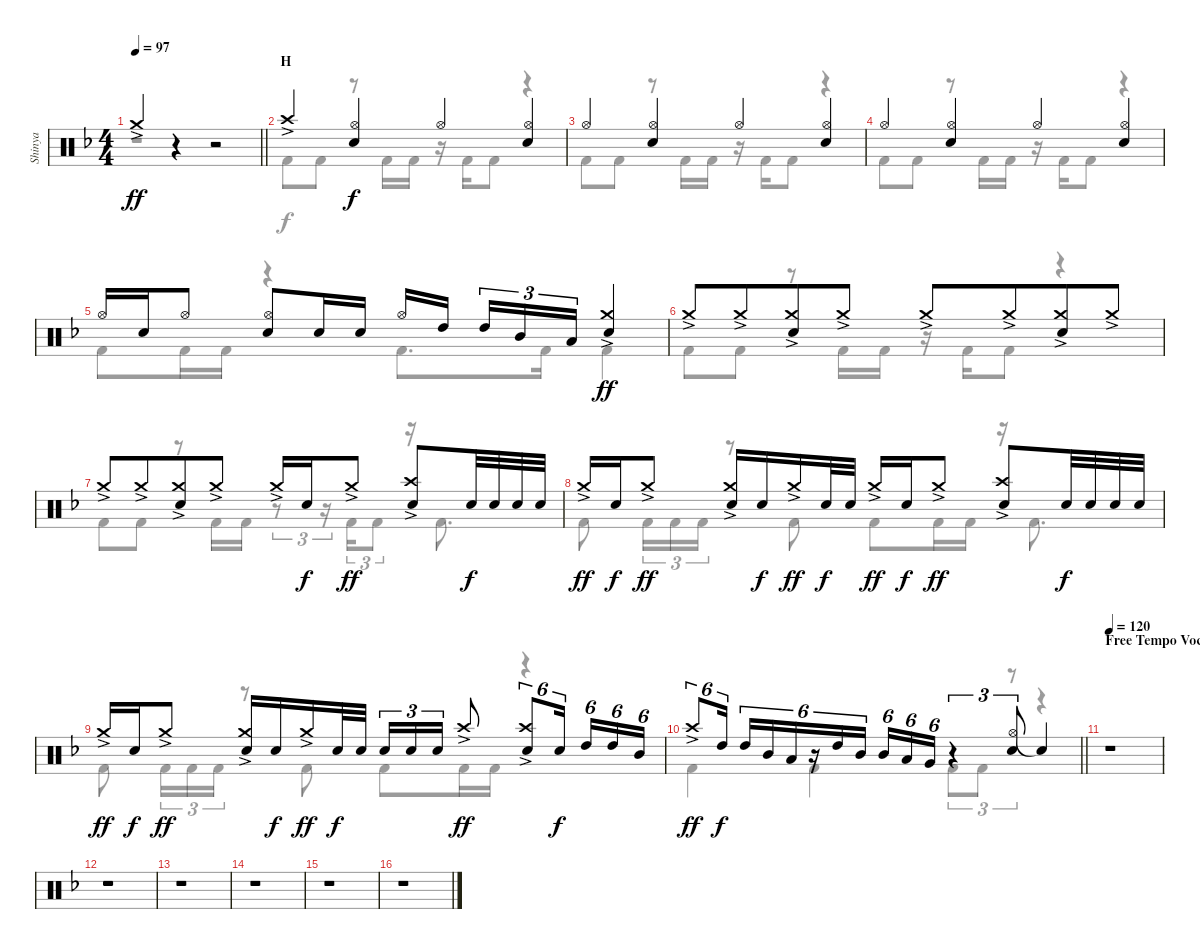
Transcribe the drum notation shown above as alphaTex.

\track ("Shinya" "Shinya") {mute instrument percussion}
\staff {score}
\articulation defaults
\voice
\ts (4 4)
\tempo 97
\clef neutral
\barLineRight lightlight
\ks dminor "Crash medium (hit)"{ac}.4{dy ff}
r.4 r.2 |
\section ("" "H")
"Crash high (hit)"{ac}.4 ("Hi-Hat (open)" "Snare (hit) 2").4{dy f} "Hi-Hat (open)".4 ("Hi-Hat (open)" "Snare (hit) 2").4 |
"Hi-Hat (open)".4 ("Hi-Hat (open)" "Snare (hit) 2").4 "Hi-Hat (open)".4 ("Hi-Hat (open)" "Snare (hit) 2").4 |
"Hi-Hat (open)".4 ("Hi-Hat (open)" "Snare (hit) 2").4 "Hi-Hat (open)".4 ("Hi-Hat (open)" "Snare (hit) 2").4 |
"Hi-Hat (open)".16 "Snare (hit) 2".16 "Hi-Hat (open)".8 ("Hi-Hat (open)" "Snare (hit) 2").8 "Snare (hit) 2".16 "Snare (hit) 2".16 "Hi-Hat (open)".16 "High Tom (hit)".16{beam splitsecondary} "High Tom (hit)".16{tu (3 2)} "Mid Tom (hit)".16{tu (3 2)} "Low Tom (hit)".16{tu (3 2)} ("Crash medium (hit)"{ac} "Snare (hit) 2").4{dy ff} |
"Crash medium (hit)"{ac}.8 "Crash medium (hit)"{ac}.8{beam merge} ("Crash medium (hit)"{ac} "Snare (hit) 2").8 "Crash medium (hit)"{ac}.8 "Crash medium (hit)"{ac}.8 "Crash medium (hit)"{ac}.8{beam merge} ("Crash medium (hit)"{ac} "Snare (hit) 2").8 "Crash medium (hit)"{ac}.8 |
"Crash medium (hit)"{ac}.8 "Crash medium (hit)"{ac}.8{beam merge} ("Crash medium (hit)"{ac} "Snare (hit) 2").8 "Crash medium (hit)"{ac}.8 "Crash medium (hit)"{ac}.16 "Snare (hit) 2".16{dy f} "Crash medium (hit)"{ac}.8{dy ff} ("Crash high (hit)"{ac} "Snare (hit) 2").8 "Snare (hit) 2".32{dy f} "Snare (hit) 2".32 "Snare (hit) 2".32 "Snare (hit) 2".32 |
"Crash medium (hit)"{ac}.16{dy ff} "Snare (hit) 2".16{dy f} "Crash medium (hit)"{ac}.8{dy ff} ("Crash medium (hit)"{ac} "Snare (hit) 2").16 "Snare (hit) 2".16{dy f} "Crash medium (hit)"{ac}.16{dy ff} "Snare (hit) 2".32{dy f} "Snare (hit) 2".32 "Crash medium (hit)"{ac}.16{dy ff} "Snare (hit) 2".16{dy f} "Crash medium (hit)"{ac}.8{dy ff} ("Crash high (hit)"{ac} "Snare (hit) 2").8 "Snare (hit) 2".32{dy f} "Snare (hit) 2".32 "Snare (hit) 2".32 "Snare (hit) 2".32 |
"Crash medium (hit)"{ac}.16{dy ff} "Snare (hit) 2".16{dy f} "Crash medium (hit)"{ac}.8{dy ff} ("Crash medium (hit)"{ac} "Snare (hit) 2").16 "Snare (hit) 2".16{dy f} "Crash medium (hit)"{ac}.16{dy ff} "Snare (hit) 2".32{dy f} "Snare (hit) 2".32 "Snare (hit) 2".16{tu (3 2)} "Snare (hit) 2".16{tu (3 2)} "Snare (hit) 2".16{tu (3 2)} "Crash high (hit)"{ac}.8{dy ff} ("Crash high (hit)"{ac} "Snare (hit) 2").8{tu (6 4)} "Snare (hit) 2".16{tu (6 4) dy f beam splitsecondary} "High Tom (hit)".16{tu (6 4)} "High Tom (hit)".16{tu (6 4)} "Mid Tom (hit)".16{tu (6 4)} |
\barLineRight lightlight "Crash high (hit)"{ac}.8{tu (6 4) dy ff} "High Tom (hit)".16{tu (6 4) dy f beam splitsecondary} "High Tom (hit)".16{tu (6 4)} "Mid Tom (hit)".16{tu (6 4)} "Low Tom (hit)".16{tu (6 4)}
r.16{tu (6 4)} "High Tom (hit)".16{tu (6 4)} "Mid Tom (hit)".16{tu (6 4) beam splitsecondary} "Mid Tom (hit)".16{tu (6 4)} "Low Tom (hit)".16{tu (6 4)} "Very Low Tom (hit)".16{tu (6 4)} r.4{tu (3 2)} ("Hi-Hat (open)" "Snare (hit) 2").8{tu (3 2)} "Snare (hit)"{t}.4 |
\section ("" "Free Tempo Vocals")
\tempo 120
r.1 |
r.1 |
r.1 |
r.1 |
r.1 |
r.1
\voice
\clef neutral
\ottava regular
\simile none
\barLineRight lightlight
\ks dminor
r.1{dy f} |
"Kick (hit) 2".8 "Kick (hit) 2".8 r.8 "Kick (hit) 2".16 "Kick (hit) 2".16 r.16 "Kick (hit) 2".16 "Kick (hit) 2".8 r.4 |
"Kick (hit) 2".8 "Kick (hit) 2".8 r.8 "Kick (hit) 2".16 "Kick (hit) 2".16 r.16 "Kick (hit) 2".16 "Kick (hit) 2".8 r.4 |
"Kick (hit) 2".8 "Kick (hit) 2".8 r.8 "Kick (hit) 2".16 "Kick (hit) 2".16 r.16 "Kick (hit) 2".16 "Kick (hit) 2".8 r.4 |
"Kick (hit) 2".8 "Kick (hit) 2".16 "Kick (hit) 2".16 r.4 "Kick (hit) 2".8{d} "Kick (hit) 2".16 "Kick (hit) 2".4 |
"Kick (hit) 2".8 "Kick (hit) 2".8 r.8 "Kick (hit) 2".16 "Kick (hit) 2".16 r.16 "Kick (hit) 2".16 "Kick (hit) 2".8 r.4 |
"Kick (hit) 2".8 "Kick (hit) 2".8 r.8 "Kick (hit) 2".16 "Kick (hit) 2".16 r.8{tu (3 2)} r.16{tu (3 2)} "Kick (hit) 2".16{tu (3 2)} "Kick (hit) 2".8{tu (3 2)} r.16 "Kick (hit) 2".8{d} |
"Kick (hit) 2".8 "Kick (hit) 2".16{tu (3 2)} "Kick (hit) 2".16{tu (3 2)} "Kick (hit) 2".16{tu (3 2)} r.8 "Kick (hit) 2".8 "Kick (hit) 2".8 "Kick (hit) 2".16 "Kick (hit) 2".16 r.16 "Kick (hit) 2".8{d} |
"Kick (hit) 2".8 "Kick (hit) 2".16{tu (3 2)} "Kick (hit) 2".16{tu (3 2)} "Kick (hit) 2".16{tu (3 2)} r.8 "Kick (hit) 2".8 "Kick (hit) 2".8 "Kick (hit) 2".16 "Kick (hit) 2".16 r.4 |
\barLineRight lightlight "Kick (hit) 2".4 "Kick (hit) 2".4 "Kick (hit) 2".8{tu (3 2)} "Kick (hit) 2".8{tu (3 2)}
r.8{tu (3 2)} r.4 |
r.1 |
r.1 |
r.1 |
r.1 |
r.1 |
r.1
